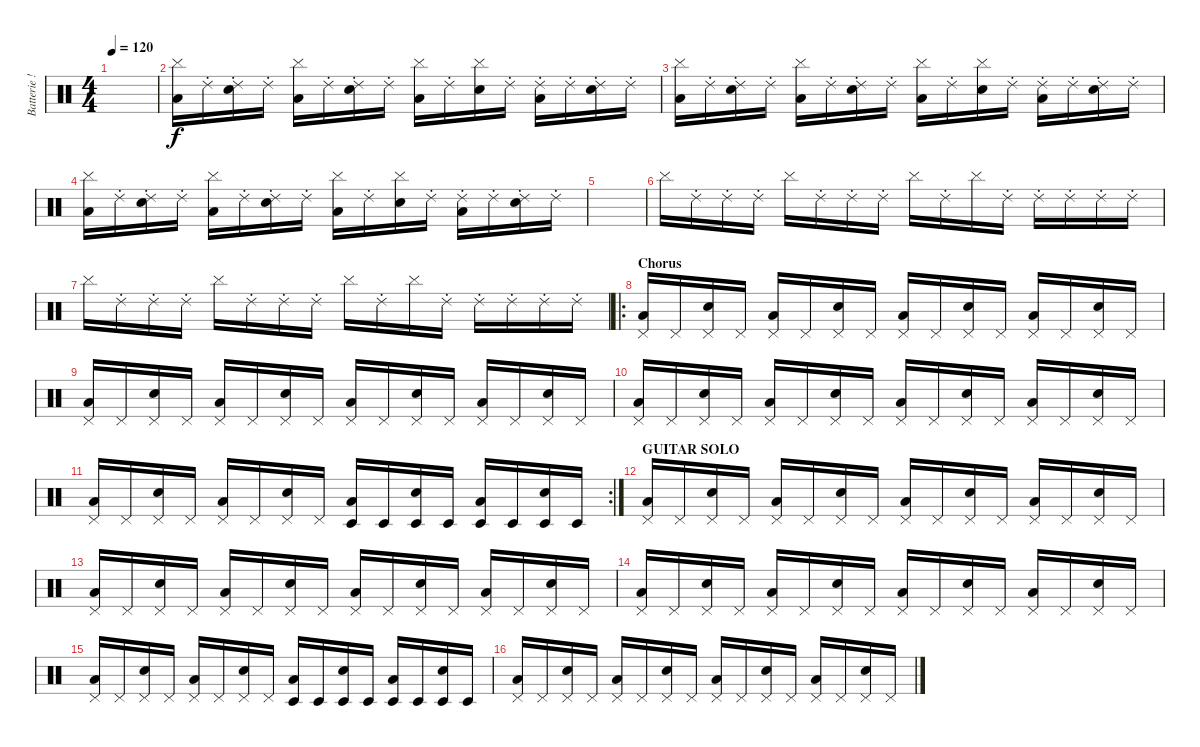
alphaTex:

\track ("Batterie !!" "Batterie !") {instrument percussion}
\staff {score}
\articulation defaults
\ts (4 4)
\tempo 120
\clef neutral
\ks c
|
("Cymbal (hit)" "Low Floor Tom (hit)").16 "Ride (choke) 2".16 ("Ride (choke) 2" "Electric Snare (hit)").16 "Ride (choke) 2".16 ("Cymbal (hit)" "Low Floor Tom (hit)").16 "Ride (choke) 2".16 ("Ride (choke) 2" "Electric Snare (hit)").16 "Ride (choke) 2".16 ("Cymbal (hit)" "Low Floor Tom (hit)").16 "Ride (choke) 2".16 ("Cymbal (hit)" "Electric Snare (hit)").16 "Ride (choke) 2".16 ("Ride (choke) 2" "Low Floor Tom (hit)").16 "Ride (choke) 2".16 ("Ride (choke) 2" "Electric Snare (hit)").16 "Ride (choke) 2".16 |
("Cymbal (hit)" "Low Floor Tom (hit)").16 "Ride (choke) 2".16 ("Ride (choke) 2" "Electric Snare (hit)").16 "Ride (choke) 2".16 ("Cymbal (hit)" "Low Floor Tom (hit)").16 "Ride (choke) 2".16 ("Ride (choke) 2" "Electric Snare (hit)").16 "Ride (choke) 2".16 ("Cymbal (hit)" "Low Floor Tom (hit)").16 "Ride (choke) 2".16 ("Cymbal (hit)" "Electric Snare (hit)").16 "Ride (choke) 2".16 ("Ride (choke) 2" "Low Floor Tom (hit)").16 "Ride (choke) 2".16 ("Ride (choke) 2" "Electric Snare (hit)").16 "Ride (choke) 2".16 |
("Cymbal (hit)" "Low Floor Tom (hit)").16 "Ride (choke) 2".16 ("Ride (choke) 2" "Electric Snare (hit)").16 "Ride (choke) 2".16 ("Cymbal (hit)" "Low Floor Tom (hit)").16 "Ride (choke) 2".16 ("Ride (choke) 2" "Electric Snare (hit)").16 "Ride (choke) 2".16 ("Cymbal (hit)" "Low Floor Tom (hit)").16 "Ride (choke) 2".16 ("Cymbal (hit)" "Electric Snare (hit)").16 "Ride (choke) 2".16 ("Ride (choke) 2" "Low Floor Tom (hit)").16 "Ride (choke) 2".16 ("Ride (choke) 2" "Electric Snare (hit)").16 "Ride (choke) 2".16 |
|
"Cymbal (hit)".16 "Ride (choke) 2".16 "Ride (choke) 2".16 "Ride (choke) 2".16 "Cymbal (hit)".16 "Ride (choke) 2".16 "Ride (choke) 2".16 "Ride (choke) 2".16 "Cymbal (hit)".16 "Ride (choke) 2".16 "Cymbal (hit)".16 "Ride (choke) 2".16 "Ride (choke) 2".16 "Ride (choke) 2".16 "Ride (choke) 2".16 "Ride (choke) 2".16 |
"Cymbal (hit)".16 "Ride (choke) 2".16 "Ride (choke) 2".16 "Ride (choke) 2".16 "Cymbal (hit)".16 "Ride (choke) 2".16 "Ride (choke) 2".16 "Ride (choke) 2".16 "Cymbal (hit)".16 "Ride (choke) 2".16 "Cymbal (hit)".16 "Ride (choke) 2".16 "Ride (choke) 2".16 "Ride (choke) 2".16 "Ride (choke) 2".16 "Ride (choke) 2".16 |
\ro
\section ("" "Chorus")
("Pedal Hi-Hat (hit)" "Low Floor Tom (hit)").16 "Pedal Hi-Hat (hit)".16 ("Pedal Hi-Hat (hit)" "Electric Snare (hit)").16 "Pedal Hi-Hat (hit)".16 ("Pedal Hi-Hat (hit)" "Low Floor Tom (hit)").16 "Pedal Hi-Hat (hit)".16 ("Pedal Hi-Hat (hit)" "Electric Snare (hit)").16 "Pedal Hi-Hat (hit)".16 ("Pedal Hi-Hat (hit)" "Low Floor Tom (hit)").16 "Pedal Hi-Hat (hit)".16 ("Pedal Hi-Hat (hit)" "Electric Snare (hit)").16 "Pedal Hi-Hat (hit)".16 ("Pedal Hi-Hat (hit)" "Low Floor Tom (hit)").16 "Pedal Hi-Hat (hit)".16 ("Pedal Hi-Hat (hit)" "Electric Snare (hit)").16 "Pedal Hi-Hat (hit)".16 |
("Pedal Hi-Hat (hit)" "Low Floor Tom (hit)").16 "Pedal Hi-Hat (hit)".16 ("Pedal Hi-Hat (hit)" "Electric Snare (hit)").16 "Pedal Hi-Hat (hit)".16 ("Pedal Hi-Hat (hit)" "Low Floor Tom (hit)").16 "Pedal Hi-Hat (hit)".16 ("Pedal Hi-Hat (hit)" "Electric Snare (hit)").16 "Pedal Hi-Hat (hit)".16 ("Pedal Hi-Hat (hit)" "Low Floor Tom (hit)").16 "Pedal Hi-Hat (hit)".16 ("Pedal Hi-Hat (hit)" "Electric Snare (hit)").16 "Pedal Hi-Hat (hit)".16 ("Pedal Hi-Hat (hit)" "Low Floor Tom (hit)").16 "Pedal Hi-Hat (hit)".16 ("Pedal Hi-Hat (hit)" "Electric Snare (hit)").16 "Pedal Hi-Hat (hit)".16 |
("Pedal Hi-Hat (hit)" "Low Floor Tom (hit)").16 "Pedal Hi-Hat (hit)".16 ("Pedal Hi-Hat (hit)" "Electric Snare (hit)").16 "Pedal Hi-Hat (hit)".16 ("Pedal Hi-Hat (hit)" "Low Floor Tom (hit)").16 "Pedal Hi-Hat (hit)".16 ("Pedal Hi-Hat (hit)" "Electric Snare (hit)").16 "Pedal Hi-Hat (hit)".16 ("Pedal Hi-Hat (hit)" "Low Floor Tom (hit)").16 "Pedal Hi-Hat (hit)".16 ("Pedal Hi-Hat (hit)" "Electric Snare (hit)").16 "Pedal Hi-Hat (hit)".16 ("Pedal Hi-Hat (hit)" "Low Floor Tom (hit)").16 "Pedal Hi-Hat (hit)".16 ("Pedal Hi-Hat (hit)" "Electric Snare (hit)").16 "Pedal Hi-Hat (hit)".16 |
\rc 2
("Pedal Hi-Hat (hit)" "Low Floor Tom (hit)").16 "Pedal Hi-Hat (hit)".16 ("Pedal Hi-Hat (hit)" "Electric Snare (hit)").16 "Pedal Hi-Hat (hit)".16 ("Pedal Hi-Hat (hit)" "Low Floor Tom (hit)").16 "Pedal Hi-Hat (hit)".16 ("Pedal Hi-Hat (hit)" "Electric Snare (hit)").16 "Pedal Hi-Hat (hit)".16 ("Timbale low (hit)" "Low Floor Tom (hit)").16 "Timbale low (hit)".16 ("Timbale low (hit)" "Electric Snare (hit)").16 "Timbale low (hit)".16 ("Timbale low (hit)" "Low Floor Tom (hit)").16 "Timbale low (hit)".16 ("Timbale low (hit)" "Electric Snare (hit)").16 "Timbale low (hit)".16 |
\section ("" "GUITAR SOLO")
("Pedal Hi-Hat (hit)" "Low Floor Tom (hit)").16 "Pedal Hi-Hat (hit)".16 ("Pedal Hi-Hat (hit)" "Electric Snare (hit)").16 "Pedal Hi-Hat (hit)".16 ("Pedal Hi-Hat (hit)" "Low Floor Tom (hit)").16 "Pedal Hi-Hat (hit)".16 ("Pedal Hi-Hat (hit)" "Electric Snare (hit)").16 "Pedal Hi-Hat (hit)".16 ("Pedal Hi-Hat (hit)" "Low Floor Tom (hit)").16 "Pedal Hi-Hat (hit)".16 ("Pedal Hi-Hat (hit)" "Electric Snare (hit)").16 "Pedal Hi-Hat (hit)".16 ("Pedal Hi-Hat (hit)" "Low Floor Tom (hit)").16 "Pedal Hi-Hat (hit)".16 ("Pedal Hi-Hat (hit)" "Electric Snare (hit)").16 "Pedal Hi-Hat (hit)".16 |
("Pedal Hi-Hat (hit)" "Low Floor Tom (hit)").16 "Pedal Hi-Hat (hit)".16 ("Pedal Hi-Hat (hit)" "Electric Snare (hit)").16 "Pedal Hi-Hat (hit)".16 ("Pedal Hi-Hat (hit)" "Low Floor Tom (hit)").16 "Pedal Hi-Hat (hit)".16 ("Pedal Hi-Hat (hit)" "Electric Snare (hit)").16 "Pedal Hi-Hat (hit)".16 ("Pedal Hi-Hat (hit)" "Low Floor Tom (hit)").16 "Pedal Hi-Hat (hit)".16 ("Pedal Hi-Hat (hit)" "Electric Snare (hit)").16 "Pedal Hi-Hat (hit)".16 ("Pedal Hi-Hat (hit)" "Low Floor Tom (hit)").16 "Pedal Hi-Hat (hit)".16 ("Pedal Hi-Hat (hit)" "Electric Snare (hit)").16 "Pedal Hi-Hat (hit)".16 |
("Pedal Hi-Hat (hit)" "Low Floor Tom (hit)").16 "Pedal Hi-Hat (hit)".16 ("Pedal Hi-Hat (hit)" "Electric Snare (hit)").16 "Pedal Hi-Hat (hit)".16 ("Pedal Hi-Hat (hit)" "Low Floor Tom (hit)").16 "Pedal Hi-Hat (hit)".16 ("Pedal Hi-Hat (hit)" "Electric Snare (hit)").16 "Pedal Hi-Hat (hit)".16 ("Pedal Hi-Hat (hit)" "Low Floor Tom (hit)").16 "Pedal Hi-Hat (hit)".16 ("Pedal Hi-Hat (hit)" "Electric Snare (hit)").16 "Pedal Hi-Hat (hit)".16 ("Pedal Hi-Hat (hit)" "Low Floor Tom (hit)").16 "Pedal Hi-Hat (hit)".16 ("Pedal Hi-Hat (hit)" "Electric Snare (hit)").16 "Pedal Hi-Hat (hit)".16 |
("Pedal Hi-Hat (hit)" "Low Floor Tom (hit)").16 "Pedal Hi-Hat (hit)".16 ("Pedal Hi-Hat (hit)" "Electric Snare (hit)").16 "Pedal Hi-Hat (hit)".16 ("Pedal Hi-Hat (hit)" "Low Floor Tom (hit)").16 "Pedal Hi-Hat (hit)".16 ("Pedal Hi-Hat (hit)" "Electric Snare (hit)").16 "Pedal Hi-Hat (hit)".16 ("Timbale low (hit)" "Low Floor Tom (hit)").16 "Timbale low (hit)".16 ("Timbale low (hit)" "Electric Snare (hit)").16 "Timbale low (hit)".16 ("Timbale low (hit)" "Low Floor Tom (hit)").16 "Timbale low (hit)".16 ("Timbale low (hit)" "Electric Snare (hit)").16 "Timbale low (hit)".16 |
("Pedal Hi-Hat (hit)" "Low Floor Tom (hit)").16 "Pedal Hi-Hat (hit)".16 ("Pedal Hi-Hat (hit)" "Electric Snare (hit)").16 "Pedal Hi-Hat (hit)".16 ("Pedal Hi-Hat (hit)" "Low Floor Tom (hit)").16 "Pedal Hi-Hat (hit)".16 ("Pedal Hi-Hat (hit)" "Electric Snare (hit)").16 "Pedal Hi-Hat (hit)".16 ("Pedal Hi-Hat (hit)" "Low Floor Tom (hit)").16 "Pedal Hi-Hat (hit)".16 ("Pedal Hi-Hat (hit)" "Electric Snare (hit)").16 "Pedal Hi-Hat (hit)".16 ("Pedal Hi-Hat (hit)" "Low Floor Tom (hit)").16 "Pedal Hi-Hat (hit)".16 ("Pedal Hi-Hat (hit)" "Electric Snare (hit)").16 "Pedal Hi-Hat (hit)".16
